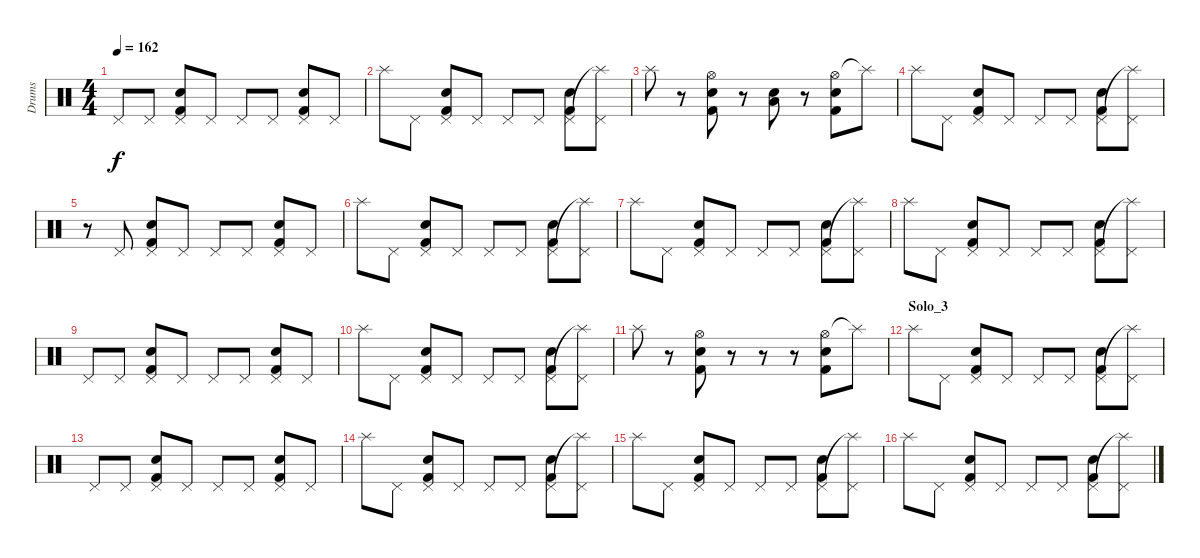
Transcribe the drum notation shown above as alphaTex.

\track ("Drums" "Drums") {instrument percussion}
\staff {score}
\articulation defaults
\ts (4 4)
\tempo 162
\clef neutral
\ks c "Pedal Hi-Hat (hit)".8{dy f} "Pedal Hi-Hat (hit)".8
("Pedal Hi-Hat (hit)" "Snare (hit) 2" "Kick (hit) 2").8 "Pedal Hi-Hat (hit)".8 "Pedal Hi-Hat (hit)".8 "Pedal Hi-Hat (hit)".8 ("Pedal Hi-Hat (hit)" "Snare (hit) 2" "Kick (hit) 2").8 "Pedal Hi-Hat (hit)".8 |
"Splash (hit)".8 "Pedal Hi-Hat (hit)".8 ("Pedal Hi-Hat (hit)" "Snare (hit) 2" "Kick (hit) 2").8 "Pedal Hi-Hat (hit)".8 "Pedal Hi-Hat (hit)".8 "Pedal Hi-Hat (hit)".8 ("Pedal Hi-Hat (hit)" "Snare (hit) 2" "Kick (hit) 2").8 ("Splash (hit)"{t} "Pedal Hi-Hat (hit)").8 |
"Splash (hit)".8 r.8 ("Hi-Hat (open)" "Snare (hit) 2" "Kick (hit) 2").8 r.8 ("Low Floor Tom (hit)" "Snare (hit) 2").8 r.8 ("Hi-Hat (open)" "Snare (hit) 2" "Kick (hit) 2").8 "Splash (hit)"{t}.8 |
"Splash (hit)".8 "Pedal Hi-Hat (hit)".8 ("Pedal Hi-Hat (hit)" "Snare (hit) 2" "Kick (hit) 2").8 "Pedal Hi-Hat (hit)".8 "Pedal Hi-Hat (hit)".8 "Pedal Hi-Hat (hit)".8 ("Pedal Hi-Hat (hit)" "Snare (hit) 2" "Kick (hit) 2").8 ("Splash (hit)"{t} "Pedal Hi-Hat (hit)").8 |
r.8 "Pedal Hi-Hat (hit)".8 ("Pedal Hi-Hat (hit)" "Snare (hit) 2" "Kick (hit) 2").8 "Pedal Hi-Hat (hit)".8 "Pedal Hi-Hat (hit)".8 "Pedal Hi-Hat (hit)".8 ("Pedal Hi-Hat (hit)" "Snare (hit) 2" "Kick (hit) 2").8 "Pedal Hi-Hat (hit)".8 |
"Splash (hit)".8 "Pedal Hi-Hat (hit)".8 ("Pedal Hi-Hat (hit)" "Snare (hit) 2" "Kick (hit) 2").8 "Pedal Hi-Hat (hit)".8 "Pedal Hi-Hat (hit)".8 "Pedal Hi-Hat (hit)".8 ("Pedal Hi-Hat (hit)" "Snare (hit) 2" "Kick (hit) 2").8 ("Splash (hit)"{t} "Pedal Hi-Hat (hit)").8 |
"Splash (hit)".8 "Pedal Hi-Hat (hit)".8 ("Pedal Hi-Hat (hit)" "Snare (hit) 2" "Kick (hit) 2").8 "Pedal Hi-Hat (hit)".8 "Pedal Hi-Hat (hit)".8 "Pedal Hi-Hat (hit)".8 ("Pedal Hi-Hat (hit)" "Snare (hit) 2" "Kick (hit) 2").8 ("Splash (hit)"{t} "Pedal Hi-Hat (hit)").8 |
"Splash (hit)".8 "Pedal Hi-Hat (hit)".8 ("Pedal Hi-Hat (hit)" "Snare (hit) 2" "Kick (hit) 2").8 "Pedal Hi-Hat (hit)".8 "Pedal Hi-Hat (hit)".8 "Pedal Hi-Hat (hit)".8 ("Pedal Hi-Hat (hit)" "Snare (hit) 2" "Kick (hit) 2").8 ("Splash (hit)"{t} "Pedal Hi-Hat (hit)").8 |
"Pedal Hi-Hat (hit)".8 "Pedal Hi-Hat (hit)".8 ("Pedal Hi-Hat (hit)" "Snare (hit) 2" "Kick (hit) 2").8 "Pedal Hi-Hat (hit)".8 "Pedal Hi-Hat (hit)".8 "Pedal Hi-Hat (hit)".8 ("Pedal Hi-Hat (hit)" "Snare (hit) 2" "Kick (hit) 2").8 "Pedal Hi-Hat (hit)".8 |
"Splash (hit)".8 "Pedal Hi-Hat (hit)".8 ("Pedal Hi-Hat (hit)" "Snare (hit) 2" "Kick (hit) 2").8 "Pedal Hi-Hat (hit)".8 "Pedal Hi-Hat (hit)".8 "Pedal Hi-Hat (hit)".8 ("Pedal Hi-Hat (hit)" "Snare (hit) 2" "Kick (hit) 2").8 ("Splash (hit)"{t} "Pedal Hi-Hat (hit)").8 |
"Splash (hit)".8 r.8 ("Hi-Hat (open)" "Snare (hit) 2" "Kick (hit) 2").8 r.8 r.8 r.8 ("Hi-Hat (open)" "Snare (hit) 2" "Kick (hit) 2").8 "Splash (hit)"{t}.8 |
\section ("" "Solo_3")
"Splash (hit)".8 "Pedal Hi-Hat (hit)".8 ("Pedal Hi-Hat (hit)" "Snare (hit) 2" "Kick (hit) 2").8 "Pedal Hi-Hat (hit)".8 "Pedal Hi-Hat (hit)".8 "Pedal Hi-Hat (hit)".8 ("Pedal Hi-Hat (hit)" "Snare (hit) 2" "Kick (hit) 2").8 ("Splash (hit)"{t} "Pedal Hi-Hat (hit)").8 |
"Pedal Hi-Hat (hit)".8 "Pedal Hi-Hat (hit)".8 ("Pedal Hi-Hat (hit)" "Snare (hit) 2" "Kick (hit) 2").8 "Pedal Hi-Hat (hit)".8 "Pedal Hi-Hat (hit)".8 "Pedal Hi-Hat (hit)".8 ("Pedal Hi-Hat (hit)" "Snare (hit) 2" "Kick (hit) 2").8 "Pedal Hi-Hat (hit)".8 |
"Splash (hit)".8 "Pedal Hi-Hat (hit)".8 ("Pedal Hi-Hat (hit)" "Snare (hit) 2" "Kick (hit) 2").8 "Pedal Hi-Hat (hit)".8 "Pedal Hi-Hat (hit)".8 "Pedal Hi-Hat (hit)".8 ("Pedal Hi-Hat (hit)" "Snare (hit) 2" "Kick (hit) 2").8 ("Splash (hit)"{t} "Pedal Hi-Hat (hit)").8 |
"Splash (hit)".8 "Pedal Hi-Hat (hit)".8 ("Pedal Hi-Hat (hit)" "Snare (hit) 2" "Kick (hit) 2").8 "Pedal Hi-Hat (hit)".8 "Pedal Hi-Hat (hit)".8 "Pedal Hi-Hat (hit)".8 ("Pedal Hi-Hat (hit)" "Snare (hit) 2" "Kick (hit) 2").8 ("Splash (hit)"{t} "Pedal Hi-Hat (hit)").8 |
"Splash (hit)".8 "Pedal Hi-Hat (hit)".8 ("Pedal Hi-Hat (hit)" "Snare (hit) 2" "Kick (hit) 2").8 "Pedal Hi-Hat (hit)".8 "Pedal Hi-Hat (hit)".8 "Pedal Hi-Hat (hit)".8 ("Pedal Hi-Hat (hit)" "Snare (hit) 2" "Kick (hit) 2").8 ("Splash (hit)"{t} "Pedal Hi-Hat (hit)").8
